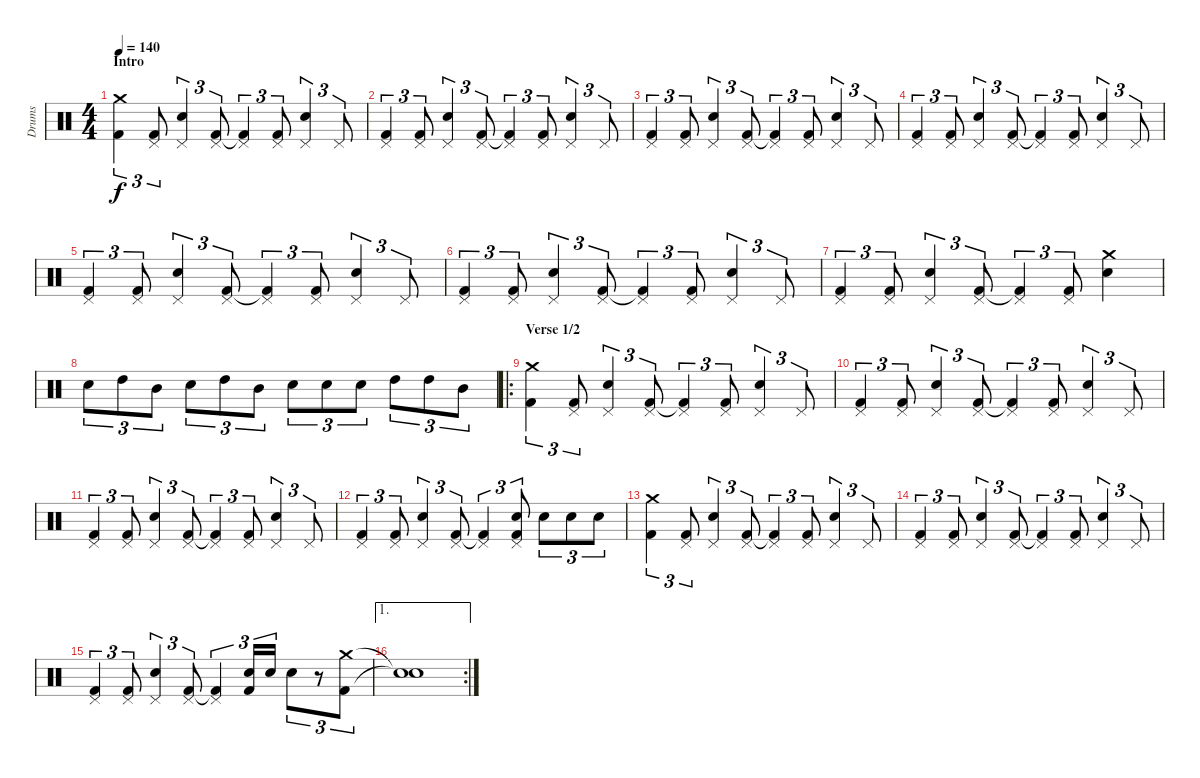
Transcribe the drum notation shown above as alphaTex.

\track ("Drums" "Drums") {instrument percussion}
\staff {score}
\articulation defaults
\ts (4 4)
\section ("" "Intro")
\tempo 140
\clef neutral
\ks c
("Crash medium (hit)" "Kick (hit) 2").4{tu (3 2) dy f} ("Pedal Hi-Hat (hit)" "Kick (hit) 2").8{tu (3 2)} ("Pedal Hi-Hat (hit)" "Snare (hit) 2").4{tu (3 2)} ("Pedal Hi-Hat (hit)" "Kick (hit) 2").8{tu (3 2)} ("Pedal Hi-Hat (hit)" "Kick (hit) 2"{t}).4{tu (3 2)} ("Pedal Hi-Hat (hit)" "Kick (hit) 2").8{tu (3 2)} ("Pedal Hi-Hat (hit)" "Snare (hit) 2").4{tu (3 2)} "Pedal Hi-Hat (hit)".8{tu (3 2)} |
("Pedal Hi-Hat (hit)" "Kick (hit) 2").4{tu (3 2)} ("Pedal Hi-Hat (hit)" "Kick (hit) 2").8{tu (3 2)} ("Pedal Hi-Hat (hit)" "Snare (hit) 2").4{tu (3 2)} ("Pedal Hi-Hat (hit)" "Kick (hit) 2").8{tu (3 2)} ("Pedal Hi-Hat (hit)" "Kick (hit) 2"{t}).4{tu (3 2)} ("Pedal Hi-Hat (hit)" "Kick (hit) 2").8{tu (3 2)} ("Pedal Hi-Hat (hit)" "Snare (hit) 2").4{tu (3 2)} "Pedal Hi-Hat (hit)".8{tu (3 2)} |
("Pedal Hi-Hat (hit)" "Kick (hit) 2").4{tu (3 2)} ("Pedal Hi-Hat (hit)" "Kick (hit) 2").8{tu (3 2)} ("Pedal Hi-Hat (hit)" "Snare (hit) 2").4{tu (3 2)} ("Pedal Hi-Hat (hit)" "Kick (hit) 2").8{tu (3 2)} ("Pedal Hi-Hat (hit)" "Kick (hit) 2"{t}).4{tu (3 2)} ("Pedal Hi-Hat (hit)" "Kick (hit) 2").8{tu (3 2)} ("Pedal Hi-Hat (hit)" "Snare (hit) 2").4{tu (3 2)} "Pedal Hi-Hat (hit)".8{tu (3 2)} |
("Pedal Hi-Hat (hit)" "Kick (hit) 2").4{tu (3 2)} ("Pedal Hi-Hat (hit)" "Kick (hit) 2").8{tu (3 2)} ("Pedal Hi-Hat (hit)" "Snare (hit) 2").4{tu (3 2)} ("Pedal Hi-Hat (hit)" "Kick (hit) 2").8{tu (3 2)} ("Pedal Hi-Hat (hit)" "Kick (hit) 2"{t}).4{tu (3 2)} ("Pedal Hi-Hat (hit)" "Kick (hit) 2").8{tu (3 2)} ("Pedal Hi-Hat (hit)" "Snare (hit) 2").4{tu (3 2)} "Pedal Hi-Hat (hit)".8{tu (3 2)} |
("Pedal Hi-Hat (hit)" "Kick (hit) 2").4{tu (3 2)} ("Pedal Hi-Hat (hit)" "Kick (hit) 2").8{tu (3 2)} ("Pedal Hi-Hat (hit)" "Snare (hit) 2").4{tu (3 2)} ("Pedal Hi-Hat (hit)" "Kick (hit) 2").8{tu (3 2)} ("Pedal Hi-Hat (hit)" "Kick (hit) 2"{t}).4{tu (3 2)} ("Pedal Hi-Hat (hit)" "Kick (hit) 2").8{tu (3 2)} ("Pedal Hi-Hat (hit)" "Snare (hit) 2").4{tu (3 2)} "Pedal Hi-Hat (hit)".8{tu (3 2)} |
("Pedal Hi-Hat (hit)" "Kick (hit) 2").4{tu (3 2)} ("Pedal Hi-Hat (hit)" "Kick (hit) 2").8{tu (3 2)} ("Pedal Hi-Hat (hit)" "Snare (hit) 2").4{tu (3 2)} ("Pedal Hi-Hat (hit)" "Kick (hit) 2").8{tu (3 2)} ("Pedal Hi-Hat (hit)" "Kick (hit) 2"{t}).4{tu (3 2)} ("Pedal Hi-Hat (hit)" "Kick (hit) 2").8{tu (3 2)} ("Pedal Hi-Hat (hit)" "Snare (hit) 2").4{tu (3 2)} "Pedal Hi-Hat (hit)".8{tu (3 2)} |
("Pedal Hi-Hat (hit)" "Kick (hit) 2").4{tu (3 2)} ("Pedal Hi-Hat (hit)" "Kick (hit) 2").8{tu (3 2)} ("Pedal Hi-Hat (hit)" "Snare (hit) 2").4{tu (3 2)} ("Pedal Hi-Hat (hit)" "Kick (hit) 2").8{tu (3 2)} ("Pedal Hi-Hat (hit)" "Kick (hit) 2"{t}).4{tu (3 2)} ("Pedal Hi-Hat (hit)" "Kick (hit) 2").8{tu (3 2)} ("Crash medium (hit)" "Snare (hit) 2").4 |
"Snare (hit) 2".8{tu (3 2)} "High Tom (hit)".8{tu (3 2)} "Mid Tom (hit)".8{tu (3 2)} "Snare (hit) 2".8{tu (3 2)} "High Tom (hit)".8{tu (3 2)} "Mid Tom (hit)".8{tu (3 2)} "Snare (hit) 2".8{tu (3 2)} "Snare (hit) 2".8{tu (3 2)} "Snare (hit) 2".8{tu (3 2)} "High Tom (hit)".8{tu (3 2)} "High Tom (hit)".8{tu (3 2)} "Mid Tom (hit)".8{tu (3 2)} |
\ro
\section ("" "Verse 1/2")
("Crash medium (hit)" "Kick (hit) 2").4{tu (3 2)} ("Pedal Hi-Hat (hit)" "Kick (hit) 2").8{tu (3 2)} ("Pedal Hi-Hat (hit)" "Snare (hit) 2").4{tu (3 2)} ("Pedal Hi-Hat (hit)" "Kick (hit) 2").8{tu (3 2)} ("Pedal Hi-Hat (hit)" "Kick (hit) 2"{t}).4{tu (3 2)} ("Pedal Hi-Hat (hit)" "Kick (hit) 2").8{tu (3 2)} ("Pedal Hi-Hat (hit)" "Snare (hit) 2").4{tu (3 2)} "Pedal Hi-Hat (hit)".8{tu (3 2)} |
("Pedal Hi-Hat (hit)" "Kick (hit) 2").4{tu (3 2)} ("Pedal Hi-Hat (hit)" "Kick (hit) 2").8{tu (3 2)} ("Pedal Hi-Hat (hit)" "Snare (hit) 2").4{tu (3 2)} ("Pedal Hi-Hat (hit)" "Kick (hit) 2").8{tu (3 2)} ("Pedal Hi-Hat (hit)" "Kick (hit) 2"{t}).4{tu (3 2)} ("Pedal Hi-Hat (hit)" "Kick (hit) 2").8{tu (3 2)} ("Pedal Hi-Hat (hit)" "Snare (hit) 2").4{tu (3 2)} "Pedal Hi-Hat (hit)".8{tu (3 2)} |
("Pedal Hi-Hat (hit)" "Kick (hit) 2").4{tu (3 2)} ("Pedal Hi-Hat (hit)" "Kick (hit) 2").8{tu (3 2)} ("Pedal Hi-Hat (hit)" "Snare (hit) 2").4{tu (3 2)} ("Pedal Hi-Hat (hit)" "Kick (hit) 2").8{tu (3 2)} ("Pedal Hi-Hat (hit)" "Kick (hit) 2"{t}).4{tu (3 2)} ("Pedal Hi-Hat (hit)" "Kick (hit) 2").8{tu (3 2)} ("Pedal Hi-Hat (hit)" "Snare (hit) 2").4{tu (3 2)} "Pedal Hi-Hat (hit)".8{tu (3 2)} |
("Pedal Hi-Hat (hit)" "Kick (hit) 2").4{tu (3 2)} ("Pedal Hi-Hat (hit)" "Kick (hit) 2").8{tu (3 2)} ("Pedal Hi-Hat (hit)" "Snare (hit) 2").4{tu (3 2)} ("Pedal Hi-Hat (hit)" "Kick (hit) 2").8{tu (3 2)} ("Pedal Hi-Hat (hit)" "Kick (hit) 2"{t}).4{tu (3 2)} ("Pedal Hi-Hat (hit)" "Snare (hit) 2" "Kick (hit) 2").8{tu (3 2)} "Snare (hit) 2".8{tu (3 2)} "Snare (hit) 2".8{tu (3 2)} "Snare (hit) 2".8{tu (3 2)} |
("Crash medium (hit)" "Kick (hit) 2").4{tu (3 2)} ("Pedal Hi-Hat (hit)" "Kick (hit) 2").8{tu (3 2)} ("Pedal Hi-Hat (hit)" "Snare (hit) 2").4{tu (3 2)} ("Pedal Hi-Hat (hit)" "Kick (hit) 2").8{tu (3 2)} ("Pedal Hi-Hat (hit)" "Kick (hit) 2"{t}).4{tu (3 2)} ("Pedal Hi-Hat (hit)" "Kick (hit) 2").8{tu (3 2)} ("Pedal Hi-Hat (hit)" "Snare (hit) 2").4{tu (3 2)} "Pedal Hi-Hat (hit)".8{tu (3 2)} |
("Pedal Hi-Hat (hit)" "Kick (hit) 2").4{tu (3 2)} ("Pedal Hi-Hat (hit)" "Kick (hit) 2").8{tu (3 2)} ("Pedal Hi-Hat (hit)" "Snare (hit) 2").4{tu (3 2)} ("Pedal Hi-Hat (hit)" "Kick (hit) 2").8{tu (3 2)} ("Pedal Hi-Hat (hit)" "Kick (hit) 2"{t}).4{tu (3 2)} ("Pedal Hi-Hat (hit)" "Kick (hit) 2").8{tu (3 2)} ("Pedal Hi-Hat (hit)" "Snare (hit) 2").4{tu (3 2)} "Pedal Hi-Hat (hit)".8{tu (3 2)} |
("Pedal Hi-Hat (hit)" "Kick (hit) 2").4{tu (3 2)} ("Pedal Hi-Hat (hit)" "Kick (hit) 2").8{tu (3 2)} ("Pedal Hi-Hat (hit)" "Snare (hit) 2").4{tu (3 2)} ("Pedal Hi-Hat (hit)" "Kick (hit) 2").8{tu (3 2)} ("Pedal Hi-Hat (hit)" "Kick (hit) 2"{t}).4{tu (3 2)} ("Snare (hit) 2" "Kick (hit) 2").16{tu (3 2)} "Snare (hit) 2".16{tu (3 2)} "Snare (hit) 2".8{tu (3 2)} r.8{tu (3 2)} ("Crash medium (hit)" "Kick (hit) 2").8{tu (3 2)} |
\ae 1
\rc 2
("Snare (hit)"{t} "Snare (hit)"{t}).1
